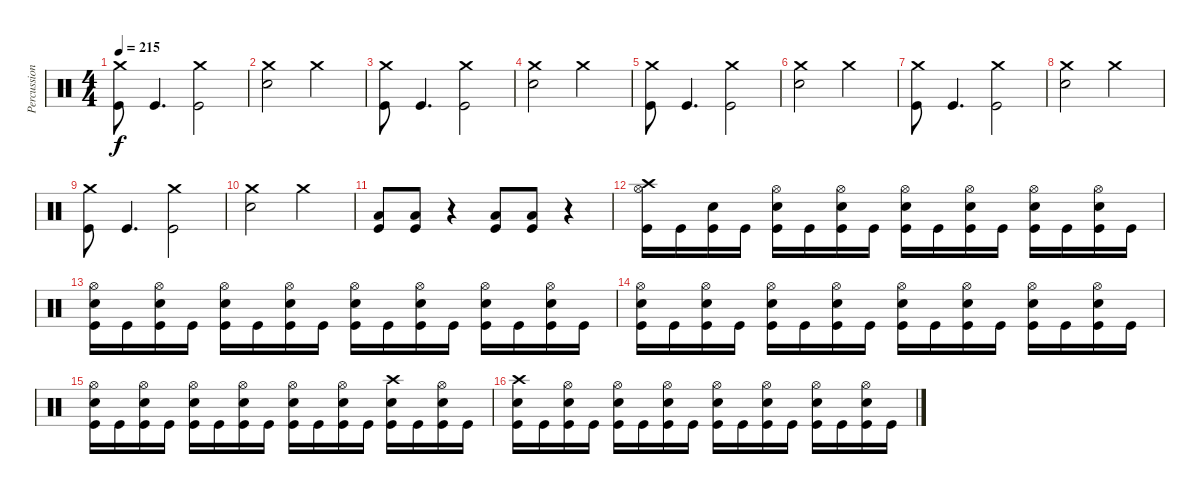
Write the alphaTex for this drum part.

\track ("Percussion" "Percussion") {instrument percussion}
\staff {score}
\articulation defaults
\ts (4 4)
\tempo 215
\clef neutral
\ks c
("Crash medium (hit)" "Kick (hit)").8{dy f} "Kick (hit)".4{d} ("Crash medium (hit)" "Kick (hit)").2 |
("Crash medium (hit)" "Electric Snare (hit)").2 "Crash medium (hit)".2 |
("Crash medium (hit)" "Kick (hit)").8 "Kick (hit)".4{d} ("Crash medium (hit)" "Kick (hit)").2 |
("Crash medium (hit)" "Electric Snare (hit)").2 "Crash medium (hit)".2 |
("Crash medium (hit)" "Kick (hit)").8 "Kick (hit)".4{d} ("Crash medium (hit)" "Kick (hit)").2 |
("Crash medium (hit)" "Electric Snare (hit)").2 "Crash medium (hit)".2 |
("Crash medium (hit)" "Kick (hit)").8 "Kick (hit)".4{d} ("Crash medium (hit)" "Kick (hit)").2 |
("Crash medium (hit)" "Electric Snare (hit)").2 "Crash medium (hit)".2 |
("Crash medium (hit)" "Kick (hit)").8 "Kick (hit)".4{d} ("Crash medium (hit)" "Kick (hit)").2 |
("Crash medium (hit)" "Electric Snare (hit)").2 "Crash medium (hit)".2 |
("Low Floor Tom (hit)" "Kick (hit)").8 ("Low Floor Tom (hit)" "Kick (hit)").8 r.4 ("Low Floor Tom (hit)" "Kick (hit)").8 ("Low Floor Tom (hit)" "Kick (hit)").8 r.4 |
("Crash high (hit)" "Hi-Hat (open)" "Kick (hit)").16 "Kick (hit)".16 ("Electric Snare (hit)" "Kick (hit)").16 "Kick (hit)".16 ("Hi-Hat (open)" "Electric Snare (hit)" "Kick (hit)").16 "Kick (hit)".16 ("Hi-Hat (open)" "Electric Snare (hit)" "Kick (hit)").16 "Kick (hit)".16 ("Hi-Hat (open)" "Electric Snare (hit)" "Kick (hit)").16 "Kick (hit)".16 ("Hi-Hat (open)" "Electric Snare (hit)" "Kick (hit)").16 "Kick (hit)".16 ("Hi-Hat (open)" "Electric Snare (hit)" "Kick (hit)").16 "Kick (hit)".16 ("Hi-Hat (open)" "Electric Snare (hit)" "Kick (hit)").16 "Kick (hit)".16 |
("Hi-Hat (open)" "Electric Snare (hit)" "Kick (hit)").16 "Kick (hit)".16 ("Hi-Hat (open)" "Electric Snare (hit)" "Kick (hit)").16 "Kick (hit)".16 ("Hi-Hat (open)" "Electric Snare (hit)" "Kick (hit)").16 "Kick (hit)".16 ("Hi-Hat (open)" "Electric Snare (hit)" "Kick (hit)").16 "Kick (hit)".16 ("Hi-Hat (open)" "Electric Snare (hit)" "Kick (hit)").16 "Kick (hit)".16 ("Hi-Hat (open)" "Electric Snare (hit)" "Kick (hit)").16 "Kick (hit)".16 ("Hi-Hat (open)" "Electric Snare (hit)" "Kick (hit)").16 "Kick (hit)".16 ("Hi-Hat (open)" "Electric Snare (hit)" "Kick (hit)").16 "Kick (hit)".16 |
("Hi-Hat (open)" "Electric Snare (hit)" "Kick (hit)").16 "Kick (hit)".16 ("Hi-Hat (open)" "Electric Snare (hit)" "Kick (hit)").16 "Kick (hit)".16 ("Hi-Hat (open)" "Electric Snare (hit)" "Kick (hit)").16 "Kick (hit)".16 ("Hi-Hat (open)" "Electric Snare (hit)" "Kick (hit)").16 "Kick (hit)".16 ("Hi-Hat (open)" "Electric Snare (hit)" "Kick (hit)").16 "Kick (hit)".16 ("Hi-Hat (open)" "Electric Snare (hit)" "Kick (hit)").16 "Kick (hit)".16 ("Hi-Hat (open)" "Electric Snare (hit)" "Kick (hit)").16 "Kick (hit)".16 ("Hi-Hat (open)" "Electric Snare (hit)" "Kick (hit)").16 "Kick (hit)".16 |
("Hi-Hat (open)" "Electric Snare (hit)" "Kick (hit)").16 "Kick (hit)".16 ("Hi-Hat (open)" "Electric Snare (hit)" "Kick (hit)").16 "Kick (hit)".16 ("Hi-Hat (open)" "Electric Snare (hit)" "Kick (hit)").16 "Kick (hit)".16 ("Hi-Hat (open)" "Electric Snare (hit)" "Kick (hit)").16 "Kick (hit)".16 ("Hi-Hat (open)" "Electric Snare (hit)" "Kick (hit)").16 "Kick (hit)".16 ("Hi-Hat (open)" "Electric Snare (hit)" "Kick (hit)").16 "Kick (hit)".16 ("Crash high (hit)" "Electric Snare (hit)" "Kick (hit)").16 "Kick (hit)".16 ("Hi-Hat (open)" "Electric Snare (hit)" "Kick (hit)").16 "Kick (hit)".16 |
("Crash high (hit)" "Electric Snare (hit)" "Kick (hit)").16 "Kick (hit)".16 ("Hi-Hat (open)" "Electric Snare (hit)" "Kick (hit)").16 "Kick (hit)".16 ("Hi-Hat (open)" "Electric Snare (hit)" "Kick (hit)").16 "Kick (hit)".16 ("Hi-Hat (open)" "Electric Snare (hit)" "Kick (hit)").16 "Kick (hit)".16 ("Hi-Hat (open)" "Electric Snare (hit)" "Kick (hit)").16 "Kick (hit)".16 ("Hi-Hat (open)" "Electric Snare (hit)" "Kick (hit)").16 "Kick (hit)".16 ("Hi-Hat (open)" "Electric Snare (hit)" "Kick (hit)").16 "Kick (hit)".16 ("Hi-Hat (open)" "Electric Snare (hit)" "Kick (hit)").16 "Kick (hit)".16
